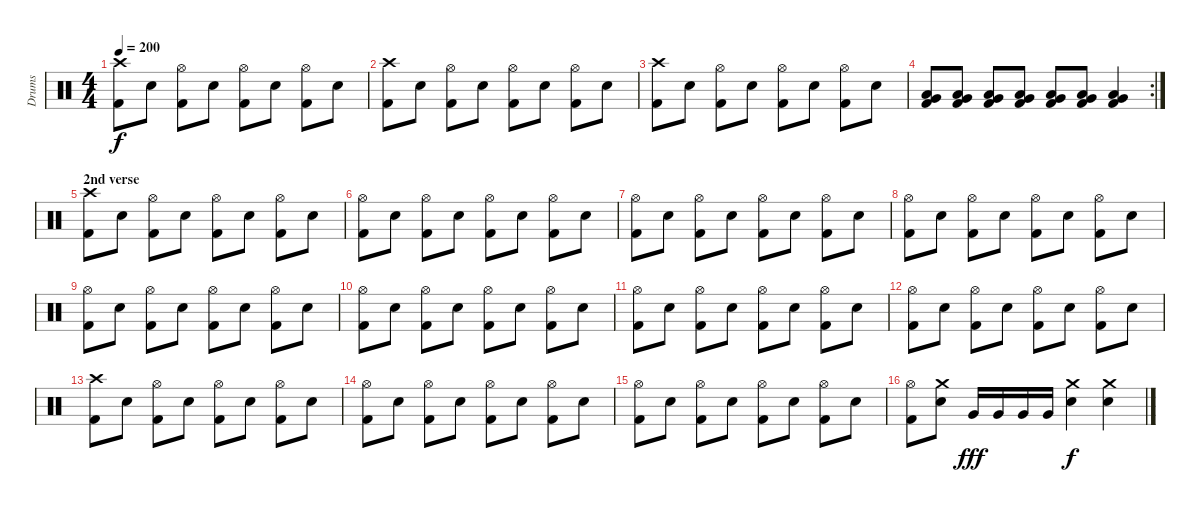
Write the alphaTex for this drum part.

\track ("Drums" "Drums") {instrument percussion}
\staff {score}
\articulation defaults
\ts (4 4)
\tempo 200
\clef neutral
\ks c
("Crash high (hit)" "Kick (hit) 2").8{dy f} "Electric Snare (hit)".8 ("Hi-Hat (open)" "Kick (hit) 2").8 "Electric Snare (hit)".8 ("Hi-Hat (open)" "Kick (hit) 2").8 "Electric Snare (hit)".8 ("Hi-Hat (open)" "Kick (hit) 2").8 "Electric Snare (hit)".8 |
("Crash high (hit)" "Kick (hit) 2").8 "Electric Snare (hit)".8 ("Hi-Hat (open)" "Kick (hit) 2").8 "Electric Snare (hit)".8 ("Hi-Hat (open)" "Kick (hit) 2").8 "Electric Snare (hit)".8 ("Hi-Hat (open)" "Kick (hit) 2").8 "Electric Snare (hit)".8 |
("Crash high (hit)" "Kick (hit) 2").8 "Electric Snare (hit)".8 ("Hi-Hat (open)" "Kick (hit) 2").8 "Electric Snare (hit)".8 ("Hi-Hat (open)" "Kick (hit) 2").8 "Electric Snare (hit)".8 ("Hi-Hat (open)" "Kick (hit) 2").8 "Electric Snare (hit)".8 |
\rc 2
("Very Low Tom (hit)" "Low Floor Tom (hit)" "Kick (hit) 2").8 ("Very Low Tom (hit)" "Low Floor Tom (hit)" "Kick (hit) 2").8 ("Very Low Tom (hit)" "Low Floor Tom (hit)" "Kick (hit) 2").8 ("Very Low Tom (hit)" "Low Floor Tom (hit)" "Kick (hit) 2").8 ("Very Low Tom (hit)" "Low Floor Tom (hit)" "Kick (hit) 2").8 ("Very Low Tom (hit)" "Low Floor Tom (hit)" "Kick (hit) 2").8 ("Very Low Tom (hit)" "Low Floor Tom (hit)" "Kick (hit) 2").4 |
\section ("" "2nd verse")
("Crash high (hit)" "Kick (hit) 2").8 "Electric Snare (hit)".8 ("Hi-Hat (open)" "Kick (hit) 2").8 "Electric Snare (hit)".8 ("Hi-Hat (open)" "Kick (hit) 2").8 "Electric Snare (hit)".8 ("Hi-Hat (open)" "Kick (hit) 2").8 "Electric Snare (hit)".8 |
("Hi-Hat (open)" "Kick (hit) 2").8 "Electric Snare (hit)".8 ("Hi-Hat (open)" "Kick (hit) 2").8 "Electric Snare (hit)".8 ("Hi-Hat (open)" "Kick (hit) 2").8 "Electric Snare (hit)".8 ("Hi-Hat (open)" "Kick (hit) 2").8 "Electric Snare (hit)".8 |
("Hi-Hat (open)" "Kick (hit) 2").8 "Electric Snare (hit)".8 ("Hi-Hat (open)" "Kick (hit) 2").8 "Electric Snare (hit)".8 ("Hi-Hat (open)" "Kick (hit) 2").8 "Electric Snare (hit)".8 ("Hi-Hat (open)" "Kick (hit) 2").8 "Electric Snare (hit)".8 |
("Hi-Hat (open)" "Kick (hit) 2").8 "Electric Snare (hit)".8 ("Hi-Hat (open)" "Kick (hit) 2").8 "Electric Snare (hit)".8 ("Hi-Hat (open)" "Kick (hit) 2").8 "Electric Snare (hit)".8 ("Hi-Hat (open)" "Kick (hit) 2").8 "Electric Snare (hit)".8 |
("Hi-Hat (open)" "Kick (hit) 2").8 "Electric Snare (hit)".8 ("Hi-Hat (open)" "Kick (hit) 2").8 "Electric Snare (hit)".8 ("Hi-Hat (open)" "Kick (hit) 2").8 "Electric Snare (hit)".8 ("Hi-Hat (open)" "Kick (hit) 2").8 "Electric Snare (hit)".8 |
("Hi-Hat (open)" "Kick (hit) 2").8 "Electric Snare (hit)".8 ("Hi-Hat (open)" "Kick (hit) 2").8 "Electric Snare (hit)".8 ("Hi-Hat (open)" "Kick (hit) 2").8 "Electric Snare (hit)".8 ("Hi-Hat (open)" "Kick (hit) 2").8 "Electric Snare (hit)".8 |
("Hi-Hat (open)" "Kick (hit) 2").8 "Electric Snare (hit)".8 ("Hi-Hat (open)" "Kick (hit) 2").8 "Electric Snare (hit)".8 ("Hi-Hat (open)" "Kick (hit) 2").8 "Electric Snare (hit)".8 ("Hi-Hat (open)" "Kick (hit) 2").8 "Electric Snare (hit)".8 |
("Hi-Hat (open)" "Kick (hit) 2").8 "Electric Snare (hit)".8 ("Hi-Hat (open)" "Kick (hit) 2").8 "Electric Snare (hit)".8 ("Hi-Hat (open)" "Kick (hit) 2").8 "Electric Snare (hit)".8 ("Hi-Hat (open)" "Kick (hit) 2").8 "Electric Snare (hit)".8 |
("Crash high (hit)" "Kick (hit) 2").8 "Electric Snare (hit)".8 ("Hi-Hat (open)" "Kick (hit) 2").8 "Electric Snare (hit)".8 ("Hi-Hat (open)" "Kick (hit) 2").8 "Electric Snare (hit)".8 ("Hi-Hat (open)" "Kick (hit) 2").8 "Electric Snare (hit)".8 |
("Hi-Hat (open)" "Kick (hit) 2").8 "Electric Snare (hit)".8 ("Hi-Hat (open)" "Kick (hit) 2").8 "Electric Snare (hit)".8 ("Hi-Hat (open)" "Kick (hit) 2").8 "Electric Snare (hit)".8 ("Hi-Hat (open)" "Kick (hit) 2").8 "Electric Snare (hit)".8 |
("Hi-Hat (open)" "Kick (hit) 2").8 "Electric Snare (hit)".8 ("Hi-Hat (open)" "Kick (hit) 2").8 "Electric Snare (hit)".8 ("Hi-Hat (open)" "Kick (hit) 2").8 "Electric Snare (hit)".8 ("Hi-Hat (open)" "Kick (hit) 2").8 "Electric Snare (hit)".8 |
("Hi-Hat (open)" "Kick (hit) 2").8 ("Crash medium (hit)" "Electric Snare (hit)").8 "Very Low Tom (hit)".16{dy fff} "Very Low Tom (hit)".16 "Very Low Tom (hit)".16 "Very Low Tom (hit)".16 ("Crash medium (hit)" "Electric Snare (hit)").4{dy f} ("Crash medium (hit)" "Electric Snare (hit)").4
